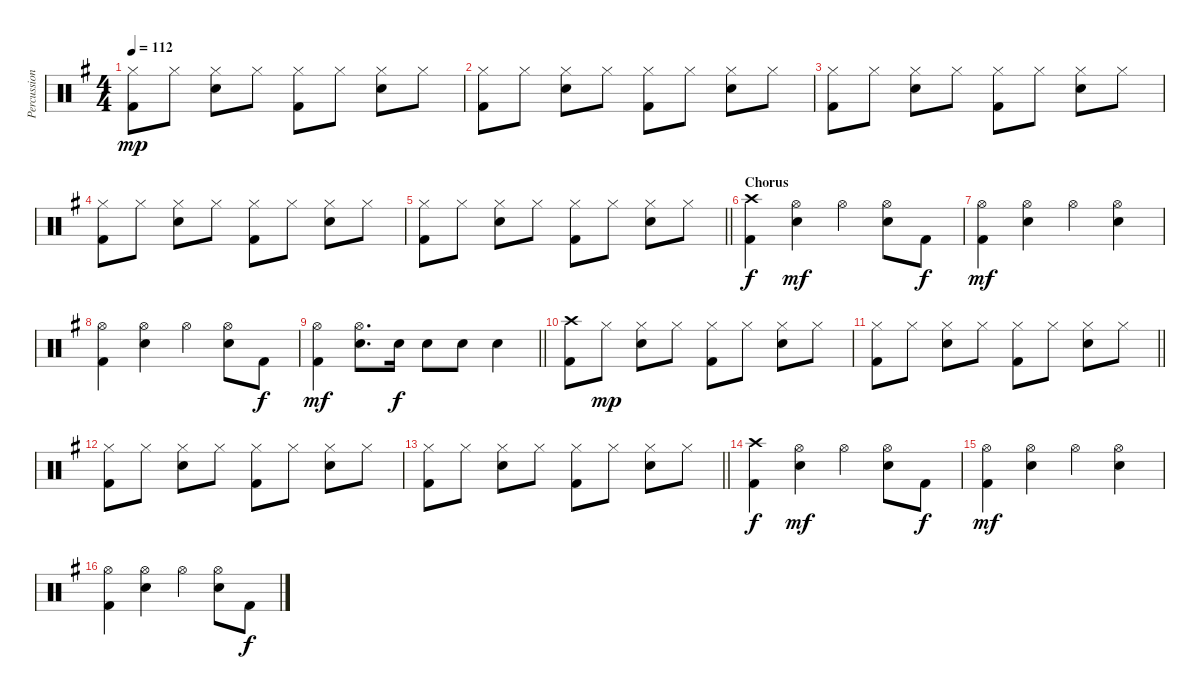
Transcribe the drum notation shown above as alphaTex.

\track ("Percussion" "Percussion") {instrument percussion}
\staff {score}
\articulation defaults
\ts (4 4)
\tempo 112
\clef neutral
\ks g
("Hi-Hat (closed)" "Kick (hit) 2").8{dy mp} "Hi-Hat (closed)".8 ("Hi-Hat (closed)" "Snare (hit) 2").8 "Hi-Hat (closed)".8 ("Hi-Hat (closed)" "Kick (hit) 2").8 "Hi-Hat (closed)".8 ("Hi-Hat (closed)" "Snare (hit) 2").8 "Hi-Hat (closed)".8 |
("Hi-Hat (closed)" "Kick (hit) 2").8 "Hi-Hat (closed)".8 ("Hi-Hat (closed)" "Snare (hit) 2").8 "Hi-Hat (closed)".8 ("Hi-Hat (closed)" "Kick (hit) 2").8 "Hi-Hat (closed)".8 ("Hi-Hat (closed)" "Snare (hit) 2").8 "Hi-Hat (closed)".8 |
("Hi-Hat (closed)" "Kick (hit) 2").8 "Hi-Hat (closed)".8 ("Hi-Hat (closed)" "Snare (hit) 2").8 "Hi-Hat (closed)".8 ("Hi-Hat (closed)" "Kick (hit) 2").8 "Hi-Hat (closed)".8 ("Hi-Hat (closed)" "Snare (hit) 2").8 "Hi-Hat (closed)".8 |
("Hi-Hat (closed)" "Kick (hit) 2").8 "Hi-Hat (closed)".8 ("Hi-Hat (closed)" "Snare (hit) 2").8 "Hi-Hat (closed)".8 ("Hi-Hat (closed)" "Kick (hit) 2").8 "Hi-Hat (closed)".8 ("Hi-Hat (closed)" "Snare (hit) 2").8 "Hi-Hat (closed)".8 |
\barLineRight lightlight
("Hi-Hat (closed)" "Kick (hit) 2").8 "Hi-Hat (closed)".8 ("Hi-Hat (closed)" "Snare (hit) 2").8 "Hi-Hat (closed)".8 ("Hi-Hat (closed)" "Kick (hit) 2").8 "Hi-Hat (closed)".8 ("Hi-Hat (closed)" "Snare (hit) 2").8 "Hi-Hat (closed)".8 |
\section ("" "Chorus")
("Crash high (hit)" "Kick (hit) 2").4{dy f} ("Hi-Hat (open)" "Snare (hit) 2").4{dy mf} "Hi-Hat (open)".4 ("Hi-Hat (open)" "Snare (hit) 2").8 "Kick (hit) 2".8{dy f} |
("Hi-Hat (open)" "Kick (hit) 2").4{dy mf} ("Hi-Hat (open)" "Snare (hit) 2").4 "Hi-Hat (open)".4 ("Hi-Hat (open)" "Snare (hit) 2").4 |
("Hi-Hat (open)" "Kick (hit) 2").4 ("Hi-Hat (open)" "Snare (hit) 2").4 "Hi-Hat (open)".4 ("Hi-Hat (open)" "Snare (hit) 2").8 "Kick (hit) 2".8{dy f} |
\barLineRight lightlight
("Hi-Hat (open)" "Kick (hit) 2").4{dy mf} ("Hi-Hat (open)" "Snare (hit) 2").8{d} "Snare (hit) 2".16{dy f} "Snare (hit) 2".8 "Snare (hit) 2".8 "Snare (hit) 2".4 |
("Crash high (hit)" "Kick (hit) 2").8 "Hi-Hat (closed)".8{dy mp} ("Hi-Hat (closed)" "Snare (hit) 2").8 "Hi-Hat (closed)".8 ("Hi-Hat (closed)" "Kick (hit) 2").8 "Hi-Hat (closed)".8 ("Hi-Hat (closed)" "Snare (hit) 2").8 "Hi-Hat (closed)".8 |
\barLineRight lightlight
("Hi-Hat (closed)" "Kick (hit) 2").8 "Hi-Hat (closed)".8 ("Hi-Hat (closed)" "Snare (hit) 2").8 "Hi-Hat (closed)".8 ("Hi-Hat (closed)" "Kick (hit) 2").8 "Hi-Hat (closed)".8 ("Hi-Hat (closed)" "Snare (hit) 2").8 "Hi-Hat (closed)".8 |
("Hi-Hat (closed)" "Kick (hit) 2").8 "Hi-Hat (closed)".8 ("Hi-Hat (closed)" "Snare (hit) 2").8 "Hi-Hat (closed)".8 ("Hi-Hat (closed)" "Kick (hit) 2").8 "Hi-Hat (closed)".8 ("Hi-Hat (closed)" "Snare (hit) 2").8 "Hi-Hat (closed)".8 |
\barLineRight lightlight
("Hi-Hat (closed)" "Kick (hit) 2").8 "Hi-Hat (closed)".8 ("Hi-Hat (closed)" "Snare (hit) 2").8 "Hi-Hat (closed)".8 ("Hi-Hat (closed)" "Kick (hit) 2").8 "Hi-Hat (closed)".8 ("Hi-Hat (closed)" "Snare (hit) 2").8 "Hi-Hat (closed)".8 |
("Crash high (hit)" "Kick (hit) 2").4{dy f} ("Hi-Hat (open)" "Snare (hit) 2").4{dy mf} "Hi-Hat (open)".4 ("Hi-Hat (open)" "Snare (hit) 2").8 "Kick (hit) 2".8{dy f} |
("Hi-Hat (open)" "Kick (hit) 2").4{dy mf} ("Hi-Hat (open)" "Snare (hit) 2").4 "Hi-Hat (open)".4 ("Hi-Hat (open)" "Snare (hit) 2").4 |
("Hi-Hat (open)" "Kick (hit) 2").4 ("Hi-Hat (open)" "Snare (hit) 2").4 "Hi-Hat (open)".4 ("Hi-Hat (open)" "Snare (hit) 2").8 "Kick (hit) 2".8{dy f}
